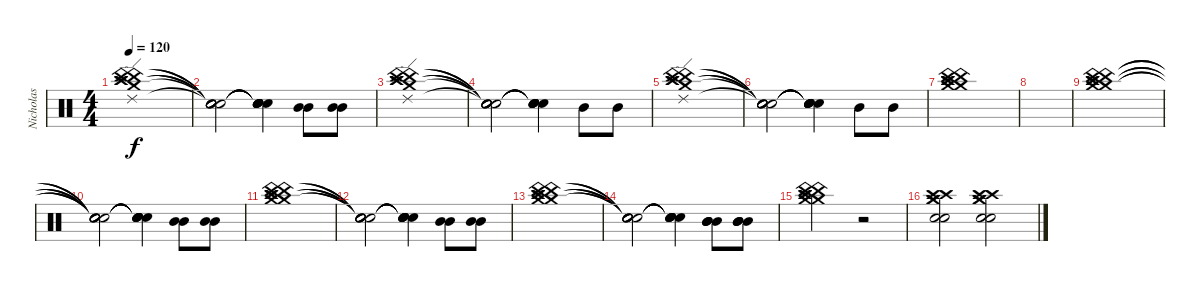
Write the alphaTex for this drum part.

\track ("Nicholas" "Nicholas") {instrument percussion}
\staff {score}
\articulation defaults
\ts (4 4)
\tempo 120
\tempo 98
\tempo 120
\clef neutral
\ks c
("Crash high (hit)" "China (hit)" "Crash medium (hit)" "China (hit)" "Crash high (hit)" "Ride (edge) 2").1{dy f} |
("Snare (hit)"{t} "Snare (hit)"{t} "Snare (hit)"{t} "Snare (hit)"{t} "Snare (hit)"{t} "Snare (hit)"{t}).2 ("Snare (hit)"{t} "Snare (hit)"{t} "Snare (hit)"{t} "Snare (hit)"{t} "Snare (hit)"{t} "Snare (hit)"{t}).4 ("Mid Tom (hit)" "Mid Tom (hit)").8 ("Mid Tom (hit)" "Mid Tom (hit)").8 |
("Crash high (hit)" "China (hit)" "Crash medium (hit)" "China (hit)" "Crash high (hit)" "Ride (edge) 2").1 |
("Snare (hit)"{t} "Snare (hit)"{t} "Snare (hit)"{t} "Snare (hit)"{t} "Snare (hit)"{t} "Snare (hit)"{t}).2 ("Snare (hit)"{t} "Snare (hit)"{t} "Snare (hit)"{t} "Snare (hit)"{t} "Snare (hit)"{t} "Snare (hit)"{t}).4 "Mid Tom (hit)".8 "Mid Tom (hit)".8 |
("Crash high (hit)" "China (hit)" "Crash medium (hit)" "China (hit)" "Crash high (hit)" "Ride (edge) 2").1 |
("Snare (hit)"{t} "Snare (hit)"{t} "Snare (hit)"{t} "Snare (hit)"{t} "Snare (hit)"{t} "Snare (hit)"{t}).2 ("Snare (hit)"{t} "Snare (hit)"{t} "Snare (hit)"{t} "Snare (hit)"{t} "Snare (hit)"{t} "Snare (hit)"{t}).4 "Mid Tom (hit)".8 "Mid Tom (hit)".8 |
("Crash medium (hit)" "Crash medium (hit)" "China (hit)" "China (hit)" "Crash high (hit)" "Crash high (hit)").1 |
|
("Crash medium (hit)" "Crash medium (hit)" "China (hit)" "China (hit)" "Crash high (hit)" "Crash high (hit)").1 |
("Snare (hit)"{t} "Snare (hit)"{t} "Snare (hit)"{t} "Snare (hit)"{t} "Snare (hit)"{t} "Snare (hit)"{t}).2 ("Snare (hit)"{t} "Snare (hit)"{t} "Snare (hit)"{t} "Snare (hit)"{t} "Snare (hit)"{t} "Snare (hit)"{t}).4 ("Mid Tom (hit)" "Mid Tom (hit)").8 ("Mid Tom (hit)" "Mid Tom (hit)").8 |
("Crash medium (hit)" "Crash medium (hit)" "China (hit)" "China (hit)" "Crash high (hit)" "Crash high (hit)").1 |
("Snare (hit)"{t} "Snare (hit)"{t} "Snare (hit)"{t} "Snare (hit)"{t} "Snare (hit)"{t} "Snare (hit)"{t}).2 ("Snare (hit)"{t} "Snare (hit)"{t} "Snare (hit)"{t} "Snare (hit)"{t} "Snare (hit)"{t} "Snare (hit)"{t}).4 ("Mid Tom (hit)" "Mid Tom (hit)").8 ("Mid Tom (hit)" "Mid Tom (hit)").8 |
("Crash medium (hit)" "Crash medium (hit)" "China (hit)" "China (hit)" "Crash high (hit)" "Crash high (hit)").1 |
("Snare (hit)"{t} "Snare (hit)"{t} "Snare (hit)"{t} "Snare (hit)"{t} "Snare (hit)"{t} "Snare (hit)"{t}).2 ("Snare (hit)"{t} "Snare (hit)"{t} "Snare (hit)"{t} "Snare (hit)"{t} "Snare (hit)"{t} "Snare (hit)"{t}).4 ("Mid Tom (hit)" "Mid Tom (hit)" "Mid Tom (hit)" "Mid Tom (hit)").8 ("Mid Tom (hit)" "Mid Tom (hit)" "Mid Tom (hit)" "Mid Tom (hit)").8 |
("Crash medium (hit)" "Crash medium (hit)" "China (hit)" "China (hit)" "Crash high (hit)" "Crash high (hit)").2 r.2 |
("Crash medium (hit)" "Crash medium (hit)" "Snare (hit)" "Snare (hit)" "Crash high (hit)" "Crash high (hit)").2 ("Crash medium (hit)" "Crash medium (hit)" "Snare (hit)" "Snare (hit)" "Crash high (hit)" "Crash high (hit)").2
